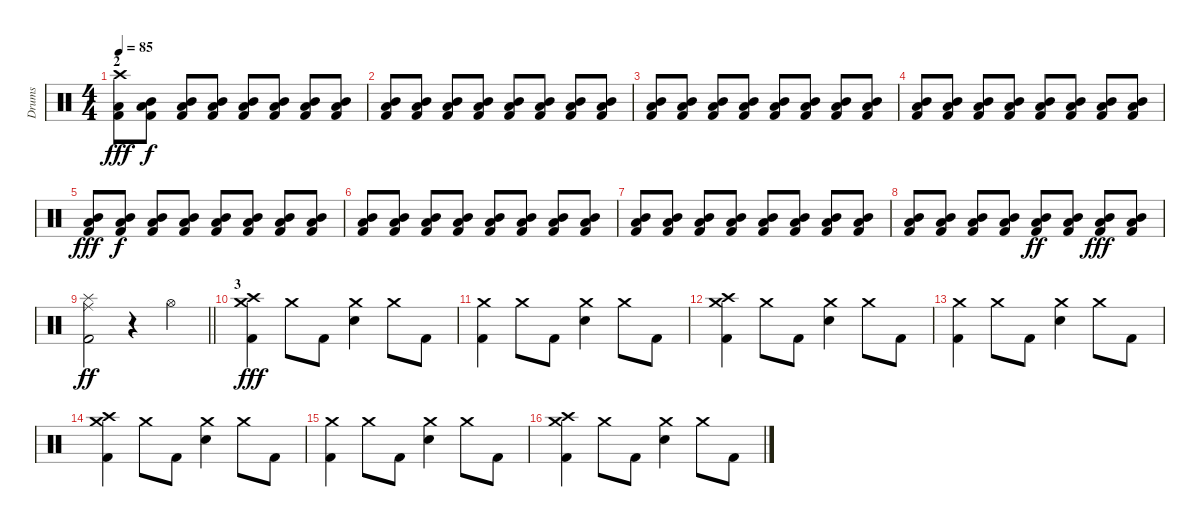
\track ("Drums" "Drums") {instrument percussion}
\staff {score}
\articulation defaults
\ts (4 4)
\section ("" "2")
\tempo 85
\clef neutral
\ks c
("Crash high (hit)" "Low Floor Tom (hit)" "Kick (hit) 2").8{dy fff} ("Mid Tom (hit)" "Low Floor Tom (hit)" "Kick (hit) 2").8{dy f} ("Mid Tom (hit)" "Low Floor Tom (hit)" "Kick (hit) 2").8 ("Mid Tom (hit)" "Low Floor Tom (hit)" "Kick (hit) 2").8 ("Mid Tom (hit)" "Low Floor Tom (hit)" "Kick (hit) 2").8 ("Mid Tom (hit)" "Low Floor Tom (hit)" "Kick (hit) 2").8 ("Mid Tom (hit)" "Low Floor Tom (hit)" "Kick (hit) 2").8 ("Mid Tom (hit)" "Low Floor Tom (hit)" "Kick (hit) 2").8 |
("Mid Tom (hit)" "Low Floor Tom (hit)" "Kick (hit) 2").8 ("Mid Tom (hit)" "Low Floor Tom (hit)" "Kick (hit) 2").8 ("Mid Tom (hit)" "Low Floor Tom (hit)" "Kick (hit) 2").8 ("Mid Tom (hit)" "Low Floor Tom (hit)" "Kick (hit) 2").8 ("Mid Tom (hit)" "Low Floor Tom (hit)" "Kick (hit) 2").8 ("Mid Tom (hit)" "Low Floor Tom (hit)" "Kick (hit) 2").8 ("Mid Tom (hit)" "Low Floor Tom (hit)" "Kick (hit) 2").8 ("Mid Tom (hit)" "Low Floor Tom (hit)" "Kick (hit) 2").8 |
("Mid Tom (hit)" "Low Floor Tom (hit)" "Kick (hit) 2").8 ("Mid Tom (hit)" "Low Floor Tom (hit)" "Kick (hit) 2").8 ("Mid Tom (hit)" "Low Floor Tom (hit)" "Kick (hit) 2").8 ("Mid Tom (hit)" "Low Floor Tom (hit)" "Kick (hit) 2").8 ("Mid Tom (hit)" "Low Floor Tom (hit)" "Kick (hit) 2").8 ("Mid Tom (hit)" "Low Floor Tom (hit)" "Kick (hit) 2").8 ("Mid Tom (hit)" "Low Floor Tom (hit)" "Kick (hit) 2").8 ("Mid Tom (hit)" "Low Floor Tom (hit)" "Kick (hit) 2").8 |
("Mid Tom (hit)" "Low Floor Tom (hit)" "Kick (hit) 2").8 ("Mid Tom (hit)" "Low Floor Tom (hit)" "Kick (hit) 2").8 ("Mid Tom (hit)" "Low Floor Tom (hit)" "Kick (hit) 2").8 ("Mid Tom (hit)" "Low Floor Tom (hit)" "Kick (hit) 2").8 ("Mid Tom (hit)" "Low Floor Tom (hit)" "Kick (hit) 2").8 ("Mid Tom (hit)" "Low Floor Tom (hit)" "Kick (hit) 2").8 ("Mid Tom (hit)" "Low Floor Tom (hit)" "Kick (hit) 2").8 ("Mid Tom (hit)" "Low Floor Tom (hit)" "Kick (hit) 2").8 |
("Mid Tom (hit)" "Low Floor Tom (hit)" "Kick (hit) 2").8{dy fff} ("Mid Tom (hit)" "Low Floor Tom (hit)" "Kick (hit) 2").8{dy f} ("Mid Tom (hit)" "Low Floor Tom (hit)" "Kick (hit) 2").8 ("Mid Tom (hit)" "Low Floor Tom (hit)" "Kick (hit) 2").8 ("Mid Tom (hit)" "Low Floor Tom (hit)" "Kick (hit) 2").8 ("Mid Tom (hit)" "Low Floor Tom (hit)" "Kick (hit) 2").8 ("Mid Tom (hit)" "Low Floor Tom (hit)" "Kick (hit) 2").8 ("Mid Tom (hit)" "Low Floor Tom (hit)" "Kick (hit) 2").8 |
("Mid Tom (hit)" "Low Floor Tom (hit)" "Kick (hit) 2").8 ("Mid Tom (hit)" "Low Floor Tom (hit)" "Kick (hit) 2").8 ("Mid Tom (hit)" "Low Floor Tom (hit)" "Kick (hit) 2").8 ("Mid Tom (hit)" "Low Floor Tom (hit)" "Kick (hit) 2").8 ("Mid Tom (hit)" "Low Floor Tom (hit)" "Kick (hit) 2").8 ("Mid Tom (hit)" "Low Floor Tom (hit)" "Kick (hit) 2").8 ("Mid Tom (hit)" "Low Floor Tom (hit)" "Kick (hit) 2").8 ("Mid Tom (hit)" "Low Floor Tom (hit)" "Kick (hit) 2").8 |
("Mid Tom (hit)" "Low Floor Tom (hit)" "Kick (hit) 2").8 ("Mid Tom (hit)" "Low Floor Tom (hit)" "Kick (hit) 2").8 ("Mid Tom (hit)" "Low Floor Tom (hit)" "Kick (hit) 2").8 ("Mid Tom (hit)" "Low Floor Tom (hit)" "Kick (hit) 2").8 ("Mid Tom (hit)" "Low Floor Tom (hit)" "Kick (hit) 2").8 ("Mid Tom (hit)" "Low Floor Tom (hit)" "Kick (hit) 2").8 ("Mid Tom (hit)" "Low Floor Tom (hit)" "Kick (hit) 2").8 ("Mid Tom (hit)" "Low Floor Tom (hit)" "Kick (hit) 2").8 |
("Mid Tom (hit)" "Low Floor Tom (hit)" "Kick (hit) 2").8 ("Mid Tom (hit)" "Low Floor Tom (hit)" "Kick (hit) 2").8 ("Mid Tom (hit)" "Low Floor Tom (hit)" "Kick (hit) 2").8 ("Mid Tom (hit)" "Low Floor Tom (hit)" "Kick (hit) 2").8 ("Mid Tom (hit)" "Low Floor Tom (hit)" "Kick (hit) 2").8{dy ff} ("Mid Tom (hit)" "Low Floor Tom (hit)" "Kick (hit) 2").8 ("Mid Tom (hit)" "Low Floor Tom (hit)" "Kick (hit) 2").8{dy fff} ("Mid Tom (hit)" "Low Floor Tom (hit)" "Kick (hit) 2").8 |
\barLineRight lightlight
("Splash (hit)" "Ride (middle)" "Kick (hit) 2").2{dy ff} r.4 "Hi-Hat (open)".4 |
\section ("" "3")
("Crash high (hit)" "Crash medium (hit)" "Kick (hit) 2").4{dy fff} "Crash medium (hit)".8 "Kick (hit) 2".8 ("Crash medium (hit)" "Snare (hit) 2").4 "Crash medium (hit)".8 "Kick (hit) 2".8 |
("Crash medium (hit)" "Kick (hit) 2").4 "Crash medium (hit)".8 "Kick (hit) 2".8 ("Crash medium (hit)" "Snare (hit) 2").4 "Crash medium (hit)".8 "Kick (hit) 2".8 |
("Crash high (hit)" "Crash medium (hit)" "Kick (hit) 2").4 "Crash medium (hit)".8 "Kick (hit) 2".8 ("Crash medium (hit)" "Snare (hit) 2").4 "Crash medium (hit)".8 "Kick (hit) 2".8 |
("Crash medium (hit)" "Kick (hit) 2").4 "Crash medium (hit)".8 "Kick (hit) 2".8 ("Crash medium (hit)" "Snare (hit) 2").4 "Crash medium (hit)".8 "Kick (hit) 2".8 |
("Crash high (hit)" "Crash medium (hit)" "Kick (hit) 2").4 "Crash medium (hit)".8 "Kick (hit) 2".8 ("Crash medium (hit)" "Snare (hit) 2").4 "Crash medium (hit)".8 "Kick (hit) 2".8 |
("Crash medium (hit)" "Kick (hit) 2").4 "Crash medium (hit)".8 "Kick (hit) 2".8 ("Crash medium (hit)" "Snare (hit) 2").4 "Crash medium (hit)".8 "Kick (hit) 2".8 |
("Crash high (hit)" "Crash medium (hit)" "Kick (hit) 2").4 "Crash medium (hit)".8 "Kick (hit) 2".8 ("Crash medium (hit)" "Snare (hit) 2").4 "Crash medium (hit)".8 "Kick (hit) 2".8
